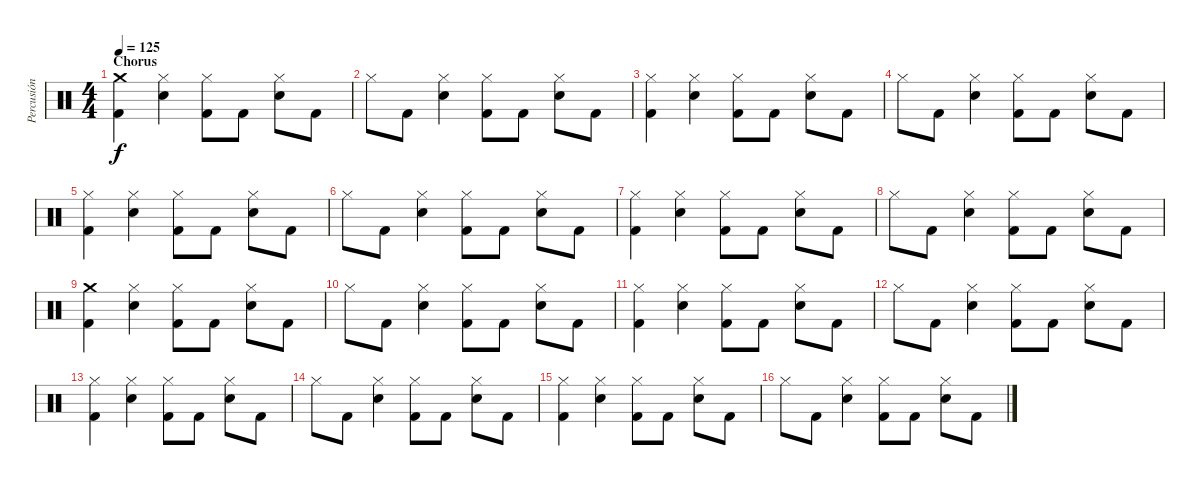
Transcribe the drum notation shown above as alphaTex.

\track ("Percusión" "Percusión") {instrument percussion}
\staff {score}
\articulation defaults
\ts (4 4)
\section ("" "Chorus")
\tempo 125
\clef neutral
\ks c
("Crash medium (hit)" "Kick (hit) 2").4{dy f} ("Snare (hit) 2" "Hi-Hat (closed)").4 ("Kick (hit) 2" "Hi-Hat (closed)").8 "Kick (hit) 2".8 ("Hi-Hat (closed)" "Snare (hit) 2").8 "Kick (hit) 2".8 |
"Hi-Hat (closed)".8 "Kick (hit) 2".8 ("Hi-Hat (closed)" "Snare (hit) 2").4 ("Hi-Hat (closed)" "Kick (hit) 2").8 "Kick (hit) 2".8 ("Hi-Hat (closed)" "Snare (hit) 2").8 "Kick (hit) 2".8 |
("Hi-Hat (closed)" "Kick (hit) 2").4 ("Snare (hit) 2" "Hi-Hat (closed)").4 ("Kick (hit) 2" "Hi-Hat (closed)").8 "Kick (hit) 2".8 ("Hi-Hat (closed)" "Snare (hit) 2").8 "Kick (hit) 2".8 |
"Hi-Hat (closed)".8 "Kick (hit) 2".8 ("Hi-Hat (closed)" "Snare (hit) 2").4 ("Hi-Hat (closed)" "Kick (hit) 2").8 "Kick (hit) 2".8 ("Hi-Hat (closed)" "Snare (hit) 2").8 "Kick (hit) 2".8 |
("Hi-Hat (closed)" "Kick (hit) 2").4 ("Snare (hit) 2" "Hi-Hat (closed)").4 ("Kick (hit) 2" "Hi-Hat (closed)").8 "Kick (hit) 2".8 ("Hi-Hat (closed)" "Snare (hit) 2").8 "Kick (hit) 2".8 |
"Hi-Hat (closed)".8 "Kick (hit) 2".8 ("Hi-Hat (closed)" "Snare (hit) 2").4 ("Hi-Hat (closed)" "Kick (hit) 2").8 "Kick (hit) 2".8 ("Hi-Hat (closed)" "Snare (hit) 2").8 "Kick (hit) 2".8 |
("Hi-Hat (closed)" "Kick (hit) 2").4 ("Snare (hit) 2" "Hi-Hat (closed)").4 ("Kick (hit) 2" "Hi-Hat (closed)").8 "Kick (hit) 2".8 ("Hi-Hat (closed)" "Snare (hit) 2").8 "Kick (hit) 2".8 |
"Hi-Hat (closed)".8 "Kick (hit) 2".8 ("Hi-Hat (closed)" "Snare (hit) 2").4 ("Hi-Hat (closed)" "Kick (hit) 2").8 "Kick (hit) 2".8 ("Hi-Hat (closed)" "Snare (hit) 2").8 "Kick (hit) 2".8 |
("Crash medium (hit)" "Kick (hit) 2").4 ("Snare (hit) 2" "Hi-Hat (closed)").4 ("Kick (hit) 2" "Hi-Hat (closed)").8 "Kick (hit) 2".8 ("Hi-Hat (closed)" "Snare (hit) 2").8 "Kick (hit) 2".8 |
"Hi-Hat (closed)".8 "Kick (hit) 2".8 ("Hi-Hat (closed)" "Snare (hit) 2").4 ("Hi-Hat (closed)" "Kick (hit) 2").8 "Kick (hit) 2".8 ("Hi-Hat (closed)" "Snare (hit) 2").8 "Kick (hit) 2".8 |
("Hi-Hat (closed)" "Kick (hit) 2").4 ("Snare (hit) 2" "Hi-Hat (closed)").4 ("Kick (hit) 2" "Hi-Hat (closed)").8 "Kick (hit) 2".8 ("Hi-Hat (closed)" "Snare (hit) 2").8 "Kick (hit) 2".8 |
"Hi-Hat (closed)".8 "Kick (hit) 2".8 ("Hi-Hat (closed)" "Snare (hit) 2").4 ("Hi-Hat (closed)" "Kick (hit) 2").8 "Kick (hit) 2".8 ("Hi-Hat (closed)" "Snare (hit) 2").8 "Kick (hit) 2".8 |
("Hi-Hat (closed)" "Kick (hit) 2").4 ("Snare (hit) 2" "Hi-Hat (closed)").4 ("Kick (hit) 2" "Hi-Hat (closed)").8 "Kick (hit) 2".8 ("Hi-Hat (closed)" "Snare (hit) 2").8 "Kick (hit) 2".8 |
"Hi-Hat (closed)".8 "Kick (hit) 2".8 ("Hi-Hat (closed)" "Snare (hit) 2").4 ("Hi-Hat (closed)" "Kick (hit) 2").8 "Kick (hit) 2".8 ("Hi-Hat (closed)" "Snare (hit) 2").8 "Kick (hit) 2".8 |
("Hi-Hat (closed)" "Kick (hit) 2").4 ("Snare (hit) 2" "Hi-Hat (closed)").4 ("Kick (hit) 2" "Hi-Hat (closed)").8 "Kick (hit) 2".8 ("Hi-Hat (closed)" "Snare (hit) 2").8 "Kick (hit) 2".8 |
"Hi-Hat (closed)".8 "Kick (hit) 2".8 ("Hi-Hat (closed)" "Snare (hit) 2").4 ("Hi-Hat (closed)" "Kick (hit) 2").8 "Kick (hit) 2".8 ("Hi-Hat (closed)" "Snare (hit) 2").8 "Kick (hit) 2".8
